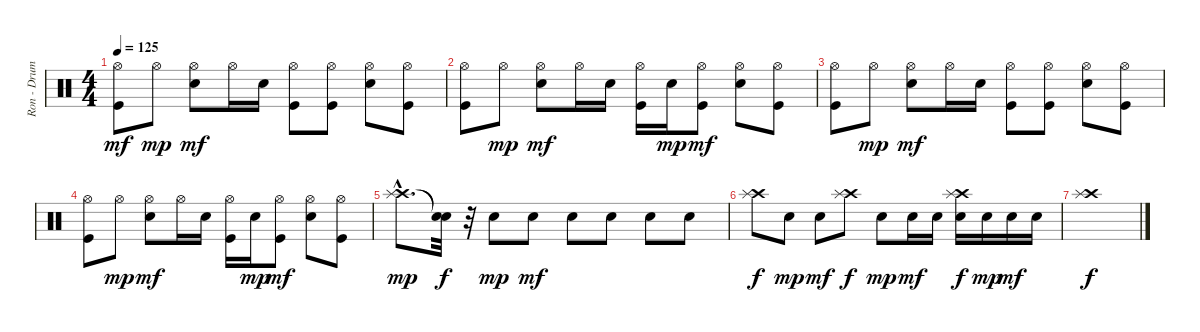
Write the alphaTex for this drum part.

\track ("Ron - Drums" "Ron - Drum") {instrument percussion}
\staff {score}
\articulation defaults
\ts (4 4)
\tempo 125
\clef neutral
\ks c
("Hi-Hat (open)" "Kick (hit)").8{dy mf} "Hi-Hat (open)".8{dy mp} ("Hi-Hat (open)" "Electric Snare (hit)").8{dy mf} "Hi-Hat (open)".16 "Electric Snare (hit)".16 ("Hi-Hat (open)" "Kick (hit)").8 ("Hi-Hat (open)" "Kick (hit)").8 ("Hi-Hat (open)" "Electric Snare (hit)").8 ("Hi-Hat (open)" "Kick (hit)").8 |
("Hi-Hat (open)" "Kick (hit)").8 "Hi-Hat (open)".8{dy mp} ("Hi-Hat (open)" "Electric Snare (hit)").8{dy mf} "Hi-Hat (open)".16 "Electric Snare (hit)".16 ("Hi-Hat (open)" "Kick (hit)").16 "Electric Snare (hit)".16{dy mp} ("Hi-Hat (open)" "Kick (hit)").8{dy mf} ("Hi-Hat (open)" "Electric Snare (hit)").8 ("Hi-Hat (open)" "Kick (hit)").8 |
("Hi-Hat (open)" "Kick (hit)").8 "Hi-Hat (open)".8{dy mp} ("Hi-Hat (open)" "Electric Snare (hit)").8{dy mf} "Hi-Hat (open)".16 "Electric Snare (hit)".16 ("Hi-Hat (open)" "Kick (hit)").8 ("Hi-Hat (open)" "Kick (hit)").8 ("Hi-Hat (open)" "Electric Snare (hit)").8 ("Hi-Hat (open)" "Kick (hit)").8 |
("Hi-Hat (open)" "Kick (hit)").8 "Hi-Hat (open)".8{dy mp} ("Hi-Hat (open)" "Electric Snare (hit)").8{dy mf} "Hi-Hat (open)".16 "Electric Snare (hit)".16 ("Hi-Hat (open)" "Kick (hit)").16 "Electric Snare (hit)".16{dy mp} ("Hi-Hat (open)" "Kick (hit)").8{dy mf} ("Hi-Hat (open)" "Electric Snare (hit)").8 ("Hi-Hat (open)" "Kick (hit)").8 |
("Crash high (hit)"{hac} "Splash (hit)"{hac}).8{d dy mp} ("Snare (hit)"{t} "Snare (hit)"{t}).32{dy f} r.32 "Electric Snare (hit)".8{dy mp} "Electric Snare (hit)".8{dy mf} "Electric Snare (hit)".8 "Electric Snare (hit)".8 "Electric Snare (hit)".8 "Electric Snare (hit)".8 |
("Crash high (hit)" "Splash (hit)").8{dy f} "Electric Snare (hit)".8{dy mp} "Electric Snare (hit)".8{dy mf} ("Crash high (hit)" "Splash (hit)").8{dy f} "Electric Snare (hit)".8{dy mp} "Electric Snare (hit)".16{dy mf} "Electric Snare (hit)".16 ("Crash high (hit)" "Electric Snare (hit)" "Splash (hit)").16{dy f} "Electric Snare (hit)".16{dy mp} "Electric Snare (hit)".16{dy mf} "Electric Snare (hit)".16 |
("Crash high (hit)" "Splash (hit)").1{dy f}
